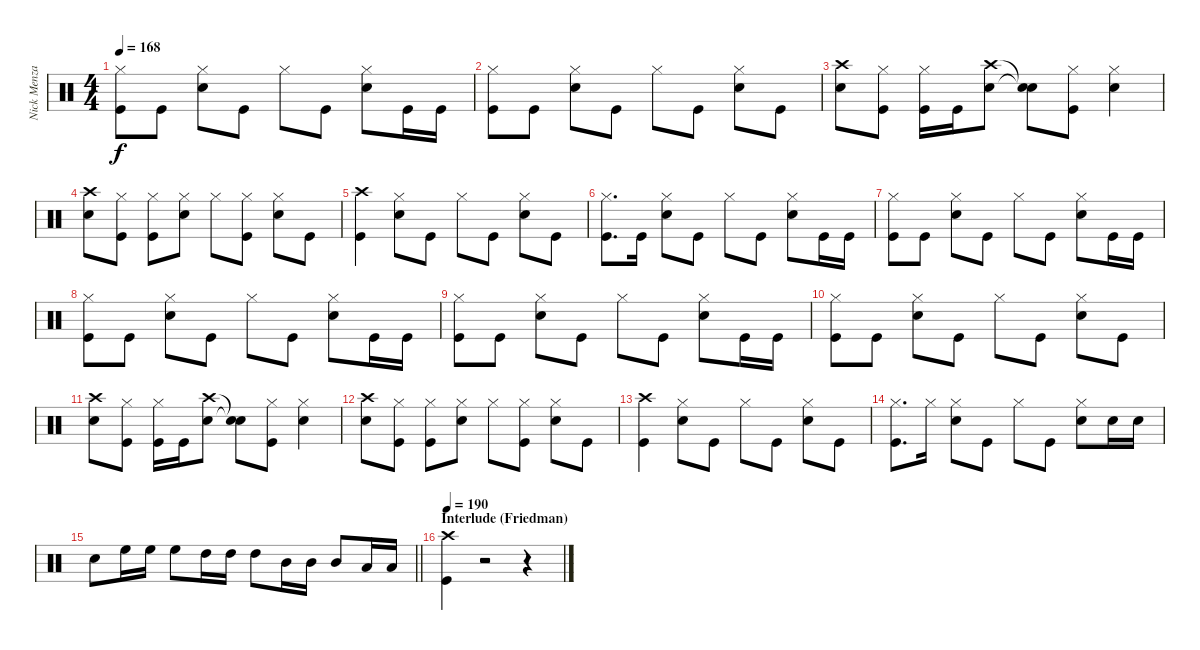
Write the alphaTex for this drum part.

\track ("Nick Menza" "Nick Menza") {instrument percussion}
\staff {score}
\articulation defaults
\ts (4 4)
\tempo 168
\clef neutral
\ks c
("Kick (hit)" "Hi-Hat (closed)").8{dy f} "Kick (hit)".8 ("Hi-Hat (closed)" "Snare (hit) 2").8 "Kick (hit)".8 "Hi-Hat (closed)".8 "Kick (hit)".8 ("Hi-Hat (closed)" "Snare (hit) 2").8 "Kick (hit)".16 "Kick (hit)".16 |
("Kick (hit)" "Hi-Hat (closed)").8 "Kick (hit)".8 ("Hi-Hat (closed)" "Snare (hit) 2").8 "Kick (hit)".8 "Hi-Hat (closed)".8 "Kick (hit)".8 ("Hi-Hat (closed)" "Snare (hit) 2").8 "Kick (hit)".8 |
("Snare (hit) 2" "Crash high (hit)").8 ("Kick (hit)" "Hi-Hat (closed)").8 ("Kick (hit)" "Hi-Hat (closed)").16 "Kick (hit)".16 ("Snare (hit) 2" "Crash high (hit)").8 ("Snare (hit)"{t} "Snare (hit)"{t}).8 ("Kick (hit)" "Hi-Hat (closed)").8 ("Hi-Hat (closed)" "Snare (hit) 2").4 |
("Crash high (hit)" "Snare (hit) 2").8 ("Kick (hit)" "Hi-Hat (closed)").8 ("Kick (hit)" "Hi-Hat (closed)").8 ("Hi-Hat (closed)" "Snare (hit) 2").8 "Hi-Hat (closed)".8 ("Kick (hit)" "Hi-Hat (closed)").8 ("Hi-Hat (closed)" "Snare (hit) 2").8 "Kick (hit)".8 |
("Kick (hit)" "Crash high (hit)").4 ("Hi-Hat (closed)" "Snare (hit) 2").8 "Kick (hit)".8 "Hi-Hat (closed)".8 "Kick (hit)".8 ("Hi-Hat (closed)" "Snare (hit) 2").8 "Kick (hit)".8 |
("Kick (hit)" "Hi-Hat (closed)").8{d} "Kick (hit)".16 ("Hi-Hat (closed)" "Snare (hit) 2").8 "Kick (hit)".8 "Hi-Hat (closed)".8 "Kick (hit)".8 ("Hi-Hat (closed)" "Snare (hit) 2").8 "Kick (hit)".16 "Kick (hit)".16 |
("Kick (hit)" "Hi-Hat (closed)").8 "Kick (hit)".8 ("Hi-Hat (closed)" "Snare (hit) 2").8 "Kick (hit)".8 "Hi-Hat (closed)".8 "Kick (hit)".8 ("Hi-Hat (closed)" "Snare (hit) 2").8 "Kick (hit)".16 "Kick (hit)".16 |
("Kick (hit)" "Hi-Hat (closed)").8 "Kick (hit)".8 ("Hi-Hat (closed)" "Snare (hit) 2").8 "Kick (hit)".8 "Hi-Hat (closed)".8 "Kick (hit)".8 ("Hi-Hat (closed)" "Snare (hit) 2").8 "Kick (hit)".16 "Kick (hit)".16 |
("Kick (hit)" "Hi-Hat (closed)").8 "Kick (hit)".8 ("Hi-Hat (closed)" "Snare (hit) 2").8 "Kick (hit)".8 "Hi-Hat (closed)".8 "Kick (hit)".8 ("Hi-Hat (closed)" "Snare (hit) 2").8 "Kick (hit)".16 "Kick (hit)".16 |
("Kick (hit)" "Hi-Hat (closed)").8 "Kick (hit)".8 ("Hi-Hat (closed)" "Snare (hit) 2").8 "Kick (hit)".8 "Hi-Hat (closed)".8 "Kick (hit)".8 ("Hi-Hat (closed)" "Snare (hit) 2").8 "Kick (hit)".8 |
("Snare (hit) 2" "Crash high (hit)").8 ("Kick (hit)" "Hi-Hat (closed)").8 ("Kick (hit)" "Hi-Hat (closed)").16 "Kick (hit)".16 ("Snare (hit) 2" "Crash high (hit)").8 ("Snare (hit)"{t} "Snare (hit)"{t}).8 ("Kick (hit)" "Hi-Hat (closed)").8 ("Hi-Hat (closed)" "Snare (hit) 2").4 |
("Crash high (hit)" "Snare (hit) 2").8 ("Kick (hit)" "Hi-Hat (closed)").8 ("Kick (hit)" "Hi-Hat (closed)").8 ("Hi-Hat (closed)" "Snare (hit) 2").8 "Hi-Hat (closed)".8 ("Kick (hit)" "Hi-Hat (closed)").8 ("Hi-Hat (closed)" "Snare (hit) 2").8 "Kick (hit)".8 |
("Kick (hit)" "Crash high (hit)").4 ("Hi-Hat (closed)" "Snare (hit) 2").8 "Kick (hit)".8 "Hi-Hat (closed)".8 "Kick (hit)".8 ("Hi-Hat (closed)" "Snare (hit) 2").8 "Kick (hit)".8 |
("Kick (hit)" "Hi-Hat (closed)").8{d} "Hi-Hat (closed)".16 ("Hi-Hat (closed)" "Snare (hit) 2").8 "Kick (hit)".8 "Hi-Hat (closed)".8 "Kick (hit)".8 ("Hi-Hat (closed)" "Snare (hit) 2").8 "Snare (hit) 2".16 "Snare (hit) 2".16 |
\barLineRight lightlight "Snare (hit) 2".8 "High Floor Tom (hit)".16 "High Floor Tom (hit)".16 "High Floor Tom (hit)".8 "High Tom (hit)".16 "High Tom (hit)".16 "High Tom (hit)".8 "Mid Tom (hit)".16 "Mid Tom (hit)".16 "Mid Tom (hit)".8 "Low Tom (hit)".16 "Low Tom (hit)".16
|
\section ("" "Interlude (Friedman)")
\tempo 130
\tempo 190
("Kick (hit)" "Crash high (hit)").4 r.2 r.4
